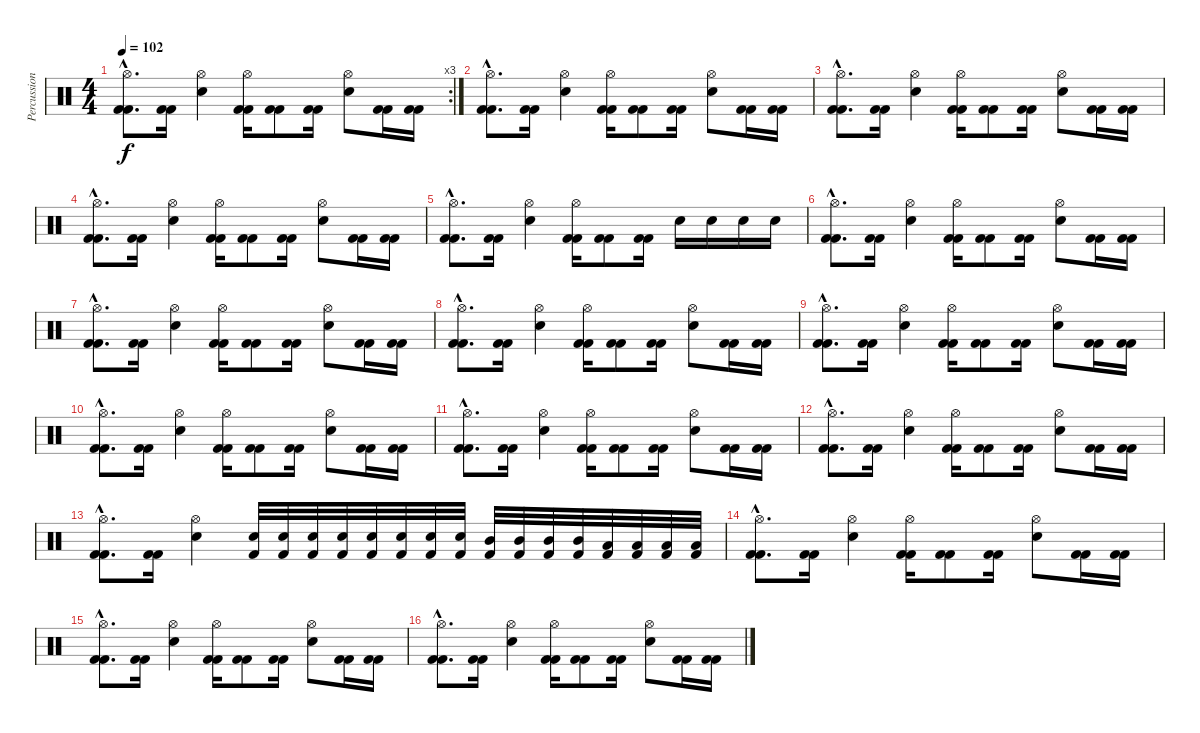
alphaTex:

\track ("Percussion" "Percussion") {instrument percussion}
\staff {score}
\articulation defaults
\rc 3
\ts (4 4)
\tempo 102
\clef neutral
\ks c
("Kick (hit) 2"{hac} "Hi-Hat (open)"{hac} "Kick (hit) 2"{hac}).8{d dy f} ("Kick (hit) 2" "Kick (hit) 2").16 ("Snare (hit) 2" "Hi-Hat (open)").4 ("Kick (hit) 2" "Hi-Hat (open)" "Kick (hit) 2").16 ("Kick (hit) 2" "Kick (hit) 2").8 ("Kick (hit) 2" "Kick (hit) 2").16 ("Snare (hit) 2" "Hi-Hat (open)").8 ("Kick (hit) 2" "Kick (hit) 2").16 ("Kick (hit) 2" "Kick (hit) 2").16 |
("Kick (hit) 2"{hac} "Hi-Hat (open)"{hac} "Kick (hit) 2"{hac}).8{d} ("Kick (hit) 2" "Kick (hit) 2").16 ("Snare (hit) 2" "Hi-Hat (open)").4 ("Kick (hit) 2" "Hi-Hat (open)" "Kick (hit) 2").16 ("Kick (hit) 2" "Kick (hit) 2").8 ("Kick (hit) 2" "Kick (hit) 2").16 ("Snare (hit) 2" "Hi-Hat (open)").8 ("Kick (hit) 2" "Kick (hit) 2").16 ("Kick (hit) 2" "Kick (hit) 2").16 |
("Kick (hit) 2"{hac} "Hi-Hat (open)"{hac} "Kick (hit) 2"{hac}).8{d} ("Kick (hit) 2" "Kick (hit) 2").16 ("Snare (hit) 2" "Hi-Hat (open)").4 ("Kick (hit) 2" "Hi-Hat (open)" "Kick (hit) 2").16 ("Kick (hit) 2" "Kick (hit) 2").8 ("Kick (hit) 2" "Kick (hit) 2").16 ("Snare (hit) 2" "Hi-Hat (open)").8 ("Kick (hit) 2" "Kick (hit) 2").16 ("Kick (hit) 2" "Kick (hit) 2").16 |
("Kick (hit) 2"{hac} "Hi-Hat (open)"{hac} "Kick (hit) 2"{hac}).8{d} ("Kick (hit) 2" "Kick (hit) 2").16 ("Snare (hit) 2" "Hi-Hat (open)").4 ("Kick (hit) 2" "Hi-Hat (open)" "Kick (hit) 2").16 ("Kick (hit) 2" "Kick (hit) 2").8 ("Kick (hit) 2" "Kick (hit) 2").16 ("Snare (hit) 2" "Hi-Hat (open)").8 ("Kick (hit) 2" "Kick (hit) 2").16 ("Kick (hit) 2" "Kick (hit) 2").16 |
("Kick (hit) 2"{hac} "Hi-Hat (open)"{hac} "Kick (hit) 2"{hac}).8{d} ("Kick (hit) 2" "Kick (hit) 2").16 ("Snare (hit) 2" "Hi-Hat (open)").4 ("Kick (hit) 2" "Hi-Hat (open)" "Kick (hit) 2").16 ("Kick (hit) 2" "Kick (hit) 2").8 ("Kick (hit) 2" "Kick (hit) 2").16 "Snare (hit) 2".16 "Snare (hit) 2".16 "Snare (hit) 2".16 "Snare (hit) 2".16 |
("Kick (hit) 2"{hac} "Hi-Hat (open)"{hac} "Kick (hit) 2"{hac}).8{d} ("Kick (hit) 2" "Kick (hit) 2").16 ("Snare (hit) 2" "Hi-Hat (open)").4 ("Kick (hit) 2" "Hi-Hat (open)" "Kick (hit) 2").16 ("Kick (hit) 2" "Kick (hit) 2").8 ("Kick (hit) 2" "Kick (hit) 2").16 ("Snare (hit) 2" "Hi-Hat (open)").8 ("Kick (hit) 2" "Kick (hit) 2").16 ("Kick (hit) 2" "Kick (hit) 2").16 |
("Kick (hit) 2"{hac} "Hi-Hat (open)"{hac} "Kick (hit) 2"{hac}).8{d} ("Kick (hit) 2" "Kick (hit) 2").16 ("Snare (hit) 2" "Hi-Hat (open)").4 ("Kick (hit) 2" "Hi-Hat (open)" "Kick (hit) 2").16 ("Kick (hit) 2" "Kick (hit) 2").8 ("Kick (hit) 2" "Kick (hit) 2").16 ("Snare (hit) 2" "Hi-Hat (open)").8 ("Kick (hit) 2" "Kick (hit) 2").16 ("Kick (hit) 2" "Kick (hit) 2").16 |
("Kick (hit) 2"{hac} "Hi-Hat (open)"{hac} "Kick (hit) 2"{hac}).8{d} ("Kick (hit) 2" "Kick (hit) 2").16 ("Snare (hit) 2" "Hi-Hat (open)").4 ("Kick (hit) 2" "Hi-Hat (open)" "Kick (hit) 2").16 ("Kick (hit) 2" "Kick (hit) 2").8 ("Kick (hit) 2" "Kick (hit) 2").16 ("Snare (hit) 2" "Hi-Hat (open)").8 ("Kick (hit) 2" "Kick (hit) 2").16 ("Kick (hit) 2" "Kick (hit) 2").16 |
("Kick (hit) 2"{hac} "Hi-Hat (open)"{hac} "Kick (hit) 2"{hac}).8{d} ("Kick (hit) 2" "Kick (hit) 2").16 ("Snare (hit) 2" "Hi-Hat (open)").4 ("Kick (hit) 2" "Hi-Hat (open)" "Kick (hit) 2").16 ("Kick (hit) 2" "Kick (hit) 2").8 ("Kick (hit) 2" "Kick (hit) 2").16 ("Snare (hit) 2" "Hi-Hat (open)").8 ("Kick (hit) 2" "Kick (hit) 2").16 ("Kick (hit) 2" "Kick (hit) 2").16 |
("Kick (hit) 2"{hac} "Hi-Hat (open)"{hac} "Kick (hit) 2"{hac}).8{d} ("Kick (hit) 2" "Kick (hit) 2").16 ("Snare (hit) 2" "Hi-Hat (open)").4 ("Kick (hit) 2" "Hi-Hat (open)" "Kick (hit) 2").16 ("Kick (hit) 2" "Kick (hit) 2").8 ("Kick (hit) 2" "Kick (hit) 2").16 ("Snare (hit) 2" "Hi-Hat (open)").8 ("Kick (hit) 2" "Kick (hit) 2").16 ("Kick (hit) 2" "Kick (hit) 2").16 |
("Kick (hit) 2"{hac} "Hi-Hat (open)"{hac} "Kick (hit) 2"{hac}).8{d} ("Kick (hit) 2" "Kick (hit) 2").16 ("Snare (hit) 2" "Hi-Hat (open)").4 ("Kick (hit) 2" "Hi-Hat (open)" "Kick (hit) 2").16 ("Kick (hit) 2" "Kick (hit) 2").8 ("Kick (hit) 2" "Kick (hit) 2").16 ("Snare (hit) 2" "Hi-Hat (open)").8 ("Kick (hit) 2" "Kick (hit) 2").16 ("Kick (hit) 2" "Kick (hit) 2").16 |
("Kick (hit) 2"{hac} "Hi-Hat (open)"{hac} "Kick (hit) 2"{hac}).8{d} ("Kick (hit) 2" "Kick (hit) 2").16 ("Snare (hit) 2" "Hi-Hat (open)").4 ("Kick (hit) 2" "Hi-Hat (open)" "Kick (hit) 2").16 ("Kick (hit) 2" "Kick (hit) 2").8 ("Kick (hit) 2" "Kick (hit) 2").16 ("Snare (hit) 2" "Hi-Hat (open)").8 ("Kick (hit) 2" "Kick (hit) 2").16 ("Kick (hit) 2" "Kick (hit) 2").16 |
("Kick (hit) 2"{hac} "Hi-Hat (open)"{hac} "Kick (hit) 2"{hac}).8{d} ("Kick (hit) 2" "Kick (hit) 2").16 ("Snare (hit) 2" "Hi-Hat (open)").4 ("Kick (hit) 2" "Snare (hit) 2").32 ("Kick (hit) 2" "Snare (hit) 2").32 ("Kick (hit) 2" "Snare (hit) 2").32 ("Kick (hit) 2" "Snare (hit) 2").32 ("Kick (hit) 2" "Snare (hit) 2").32 ("Kick (hit) 2" "Snare (hit) 2").32 ("Kick (hit) 2" "Snare (hit) 2").32 ("Kick (hit) 2" "Snare (hit) 2").32 ("Kick (hit) 2" "Mid Tom (hit)").32 ("Kick (hit) 2" "Mid Tom (hit)").32 ("Kick (hit) 2" "Mid Tom (hit)").32 ("Kick (hit) 2" "Mid Tom (hit)").32 ("Kick (hit) 2" "Low Tom (hit)").32 ("Kick (hit) 2" "Low Tom (hit)").32 ("Kick (hit) 2" "Low Tom (hit)").32 ("Kick (hit) 2" "Low Tom (hit)").32 |
("Kick (hit) 2"{hac} "Hi-Hat (open)"{hac} "Kick (hit) 2"{hac}).8{d} ("Kick (hit) 2" "Kick (hit) 2").16 ("Snare (hit) 2" "Hi-Hat (open)").4 ("Kick (hit) 2" "Hi-Hat (open)" "Kick (hit) 2").16 ("Kick (hit) 2" "Kick (hit) 2").8 ("Kick (hit) 2" "Kick (hit) 2").16 ("Snare (hit) 2" "Hi-Hat (open)").8 ("Kick (hit) 2" "Kick (hit) 2").16 ("Kick (hit) 2" "Kick (hit) 2").16 |
("Kick (hit) 2"{hac} "Hi-Hat (open)"{hac} "Kick (hit) 2"{hac}).8{d} ("Kick (hit) 2" "Kick (hit) 2").16 ("Snare (hit) 2" "Hi-Hat (open)").4 ("Kick (hit) 2" "Hi-Hat (open)" "Kick (hit) 2").16 ("Kick (hit) 2" "Kick (hit) 2").8 ("Kick (hit) 2" "Kick (hit) 2").16 ("Snare (hit) 2" "Hi-Hat (open)").8 ("Kick (hit) 2" "Kick (hit) 2").16 ("Kick (hit) 2" "Kick (hit) 2").16 |
("Kick (hit) 2"{hac} "Hi-Hat (open)"{hac} "Kick (hit) 2"{hac}).8{d} ("Kick (hit) 2" "Kick (hit) 2").16 ("Snare (hit) 2" "Hi-Hat (open)").4 ("Kick (hit) 2" "Hi-Hat (open)" "Kick (hit) 2").16 ("Kick (hit) 2" "Kick (hit) 2").8 ("Kick (hit) 2" "Kick (hit) 2").16 ("Snare (hit) 2" "Hi-Hat (open)").8 ("Kick (hit) 2" "Kick (hit) 2").16 ("Kick (hit) 2" "Kick (hit) 2").16
